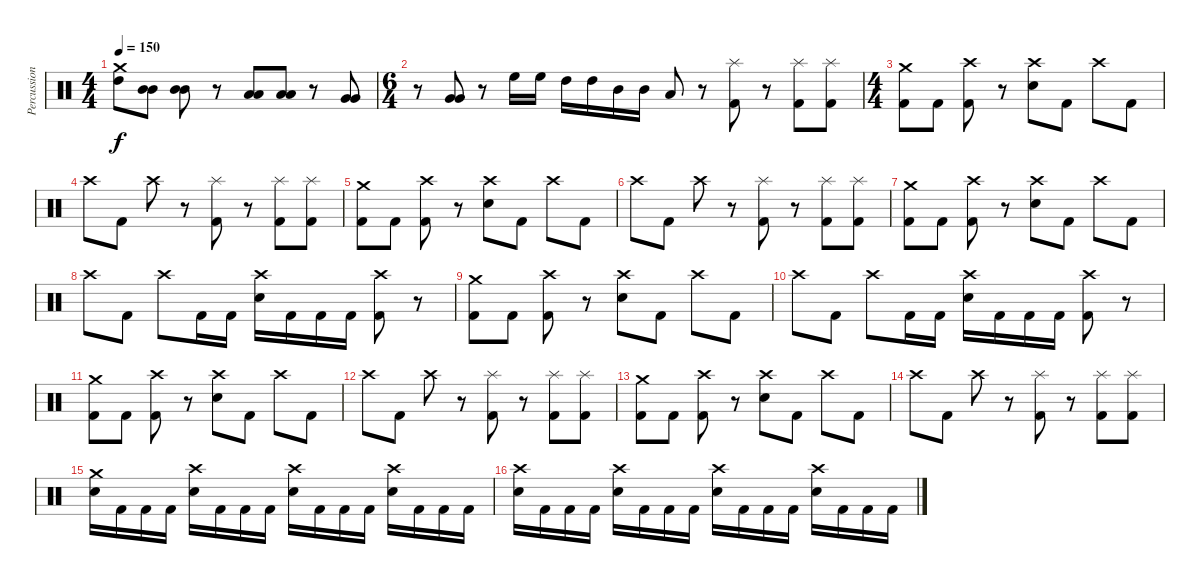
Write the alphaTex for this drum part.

\track ("Percussion" "Percussion") {instrument percussion}
\staff {score}
\articulation defaults
\ts (4 4)
\tempo 150
\clef neutral
\ks c
("Crash medium (hit)" "High Tom (hit)").8{dy f} ("Mid Tom (hit)" "Mid Tom (hit)").8 ("Mid Tom (hit)" "Mid Tom (hit)").8 r.8 ("Low Tom (hit)" "Low Tom (hit)").8 ("Low Tom (hit)" "Low Tom (hit)").8 r.8 ("Very Low Tom (hit)" "Very Low Tom (hit)").8 |
\ts (6 4)
r.8 ("Very Low Tom (hit)" "Very Low Tom (hit)").8 r.8 "High Floor Tom (hit)".16 "High Floor Tom (hit)".16 "High Tom (hit)".16 "High Tom (hit)".16 "Mid Tom (hit)".16 "Mid Tom (hit)".16 "Low Tom (hit)".8 r.8 ("Splash (hit)" "Kick (hit) 2").8 r.8 ("Splash (hit)" "Kick (hit) 2").8 ("Splash (hit)" "Kick (hit) 2").8 |
\ts (4 4)
("Crash medium (hit)" "Kick (hit) 2").8 "Kick (hit) 2".8 ("Crash high (hit)" "Kick (hit) 2").8 r.8 ("Crash high (hit)" "Electric Snare (hit)").8 "Kick (hit) 2".8 "Crash high (hit)".8 "Kick (hit) 2".8 |
"Crash high (hit)".8 "Kick (hit) 2".8 "Crash high (hit)".8 r.8 ("Splash (hit)" "Kick (hit) 2").8 r.8 ("Splash (hit)" "Kick (hit) 2").8 ("Splash (hit)" "Kick (hit) 2").8 |
("Crash medium (hit)" "Kick (hit) 2").8 "Kick (hit) 2".8 ("Crash high (hit)" "Kick (hit) 2").8 r.8 ("Crash high (hit)" "Electric Snare (hit)").8 "Kick (hit) 2".8 "Crash high (hit)".8 "Kick (hit) 2".8 |
"Crash high (hit)".8 "Kick (hit) 2".8 "Crash high (hit)".8 r.8 ("Splash (hit)" "Kick (hit) 2").8 r.8 ("Splash (hit)" "Kick (hit) 2").8 ("Splash (hit)" "Kick (hit) 2").8 |
("Crash medium (hit)" "Kick (hit) 2").8 "Kick (hit) 2".8 ("Crash high (hit)" "Kick (hit) 2").8 r.8 ("Crash high (hit)" "Electric Snare (hit)").8 "Kick (hit) 2".8 "Crash high (hit)".8 "Kick (hit) 2".8 |
"Crash high (hit)".8 "Kick (hit) 2".8 "Crash high (hit)".8 "Kick (hit) 2".16 "Kick (hit) 2".16 ("Crash high (hit)" "Electric Snare (hit)").16 "Kick (hit) 2".16 "Kick (hit) 2".16 "Kick (hit) 2".16 ("Crash high (hit)" "Kick (hit) 2").8 r.8 |
("Crash medium (hit)" "Kick (hit) 2").8 "Kick (hit) 2".8 ("Crash high (hit)" "Kick (hit) 2").8 r.8 ("Crash high (hit)" "Electric Snare (hit)").8 "Kick (hit) 2".8 "Crash high (hit)".8 "Kick (hit) 2".8 |
"Crash high (hit)".8 "Kick (hit) 2".8 "Crash high (hit)".8 "Kick (hit) 2".16 "Kick (hit) 2".16 ("Crash high (hit)" "Electric Snare (hit)").16 "Kick (hit) 2".16 "Kick (hit) 2".16 "Kick (hit) 2".16 ("Crash high (hit)" "Kick (hit) 2").8 r.8 |
("Crash medium (hit)" "Kick (hit) 2").8 "Kick (hit) 2".8 ("Crash high (hit)" "Kick (hit) 2").8 r.8 ("Crash high (hit)" "Electric Snare (hit)").8 "Kick (hit) 2".8 "Crash high (hit)".8 "Kick (hit) 2".8 |
"Crash high (hit)".8 "Kick (hit) 2".8 "Crash high (hit)".8 r.8 ("Splash (hit)" "Kick (hit) 2").8 r.8 ("Splash (hit)" "Kick (hit) 2").8 ("Splash (hit)" "Kick (hit) 2").8 |
("Crash medium (hit)" "Kick (hit) 2").8 "Kick (hit) 2".8 ("Crash high (hit)" "Kick (hit) 2").8 r.8 ("Crash high (hit)" "Electric Snare (hit)").8 "Kick (hit) 2".8 "Crash high (hit)".8 "Kick (hit) 2".8 |
"Crash high (hit)".8 "Kick (hit) 2".8 "Crash high (hit)".8 r.8 ("Splash (hit)" "Kick (hit) 2").8 r.8 ("Splash (hit)" "Kick (hit) 2").8 ("Splash (hit)" "Kick (hit) 2").8 |
("Crash medium (hit)" "Electric Snare (hit)").16 "Kick (hit) 2".16 "Kick (hit) 2".16 "Kick (hit) 2".16 ("Crash high (hit)" "Electric Snare (hit)").16 "Kick (hit) 2".16 "Kick (hit) 2".16 "Kick (hit) 2".16 ("Crash high (hit)" "Electric Snare (hit)").16 "Kick (hit) 2".16 "Kick (hit) 2".16 "Kick (hit) 2".16 ("Crash high (hit)" "Electric Snare (hit)").16 "Kick (hit) 2".16 "Kick (hit) 2".16 "Kick (hit) 2".16 |
("Crash high (hit)" "Electric Snare (hit)").16 "Kick (hit) 2".16 "Kick (hit) 2".16 "Kick (hit) 2".16 ("Crash high (hit)" "Electric Snare (hit)").16 "Kick (hit) 2".16 "Kick (hit) 2".16 "Kick (hit) 2".16 ("Crash high (hit)" "Electric Snare (hit)").16 "Kick (hit) 2".16 "Kick (hit) 2".16 "Kick (hit) 2".16 ("Crash high (hit)" "Electric Snare (hit)").16 "Kick (hit) 2".16 "Kick (hit) 2".16 "Kick (hit) 2".16
